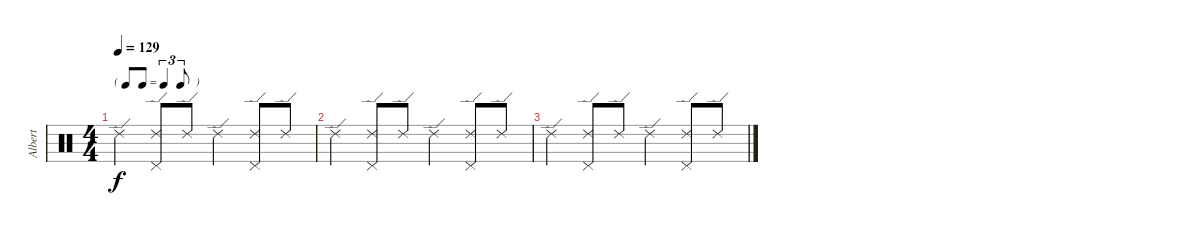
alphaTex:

\track ("Albert" "Albert") {instrument percussion}
\staff {score}
\articulation defaults
\ts (4 4)
\tf triplet8th
\tempo 129
\clef neutral
\ks c "Ride (edge) 2".4{dy f}
("Ride (edge) 2" "Pedal Hi-Hat (hit)").8 "Ride (edge) 2".8 "Ride (edge) 2".4 ("Ride (edge) 2" "Pedal Hi-Hat (hit)").8 "Ride (edge) 2".8 |
"Ride (edge) 2".4 ("Ride (edge) 2" "Pedal Hi-Hat (hit)").8 "Ride (edge) 2".8 "Ride (edge) 2".4 ("Ride (edge) 2" "Pedal Hi-Hat (hit)").8 "Ride (edge) 2".8 |
"Ride (edge) 2".4 ("Ride (edge) 2" "Pedal Hi-Hat (hit)").8 "Ride (edge) 2".8 "Ride (edge) 2".4 ("Ride (edge) 2" "Pedal Hi-Hat (hit)").8 "Ride (edge) 2".8
